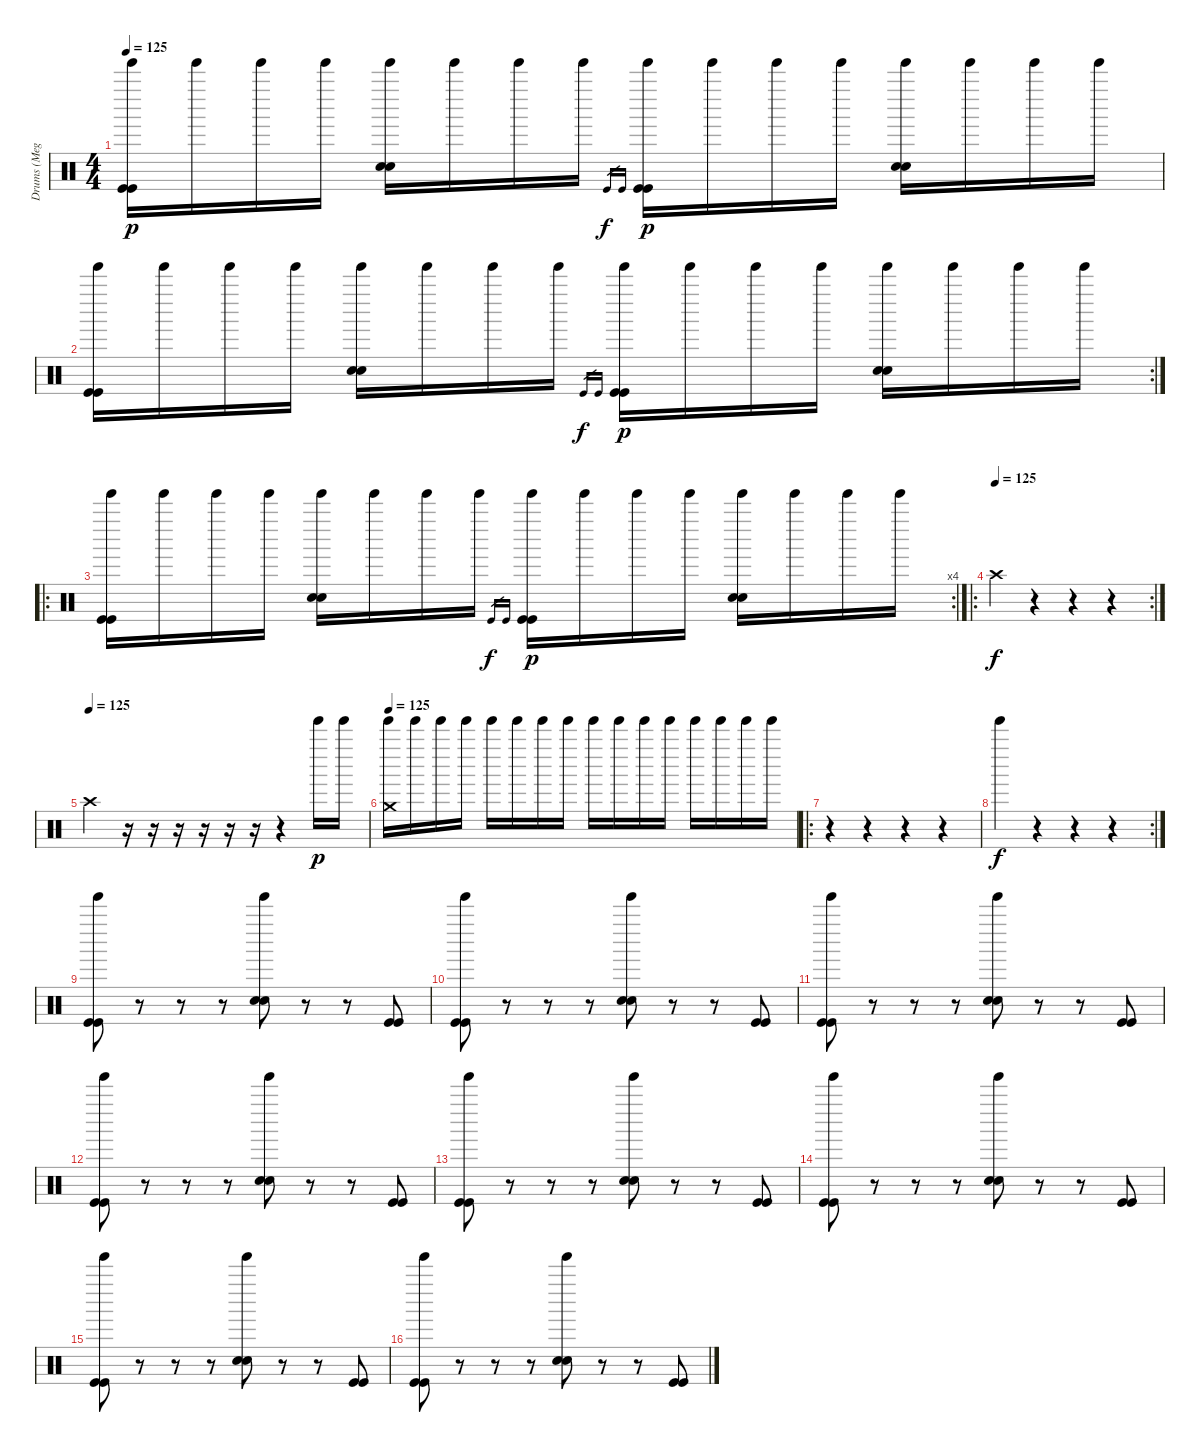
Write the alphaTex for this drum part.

\track ("Drums (Meg)" "Drums (Meg") {instrument percussion}
\staff {score}
\articulation defaults
\ts (4 4)
\tempo 125
\clef neutral
\ks c
("Tinkle Bell (hit)" "Kick (hit)" "Kick (hit)").16{dy p} "Tinkle Bell (hit)".16 "Tinkle Bell (hit)".16 "Tinkle Bell (hit)".16 ("Tinkle Bell (hit)" "Snare (hit) 2" "Snare (hit) 2").16 "Tinkle Bell (hit)".16 "Tinkle Bell (hit)".16 "Tinkle Bell (hit)".16 "Kick (hit)".16{gr dy f} "Kick (hit)".16{gr} ("Tinkle Bell (hit)" "Kick (hit)" "Kick (hit)").16{dy p} "Tinkle Bell (hit)".16 "Tinkle Bell (hit)".16 "Tinkle Bell (hit)".16 ("Tinkle Bell (hit)" "Snare (hit) 2" "Snare (hit) 2").16 "Tinkle Bell (hit)".16 "Tinkle Bell (hit)".16 "Tinkle Bell (hit)".16 |
\rc 2
("Tinkle Bell (hit)" "Kick (hit)" "Kick (hit)").16 "Tinkle Bell (hit)".16 "Tinkle Bell (hit)".16 "Tinkle Bell (hit)".16 ("Tinkle Bell (hit)" "Snare (hit) 2" "Snare (hit) 2").16 "Tinkle Bell (hit)".16 "Tinkle Bell (hit)".16 "Tinkle Bell (hit)".16 "Kick (hit)".16{gr dy f} "Kick (hit)".16{gr} ("Tinkle Bell (hit)" "Kick (hit)" "Kick (hit)").16{dy p} "Tinkle Bell (hit)".16 "Tinkle Bell (hit)".16 "Tinkle Bell (hit)".16 ("Tinkle Bell (hit)" "Snare (hit) 2" "Snare (hit) 2").16 "Tinkle Bell (hit)".16 "Tinkle Bell (hit)".16 "Tinkle Bell (hit)".16 |
\ro
\rc 4
("Tinkle Bell (hit)" "Kick (hit)" "Kick (hit)").16 "Tinkle Bell (hit)".16 "Tinkle Bell (hit)".16 "Tinkle Bell (hit)".16 ("Tinkle Bell (hit)" "Snare (hit) 2" "Snare (hit) 2").16 "Tinkle Bell (hit)".16 "Tinkle Bell (hit)".16 "Tinkle Bell (hit)".16 "Kick (hit)".16{gr dy f} "Kick (hit)".16{gr} ("Tinkle Bell (hit)" "Kick (hit)" "Kick (hit)").16{dy p} "Tinkle Bell (hit)".16 "Tinkle Bell (hit)".16 "Tinkle Bell (hit)".16 ("Tinkle Bell (hit)" "Snare (hit) 2" "Snare (hit) 2").16 "Tinkle Bell (hit)".16 "Tinkle Bell (hit)".16 "Tinkle Bell (hit)".16 |
\ro
\rc 2
\tempo (125)
"Crash high (hit)".4{dy f} r.4 r.4 r.4 |
\tempo (125)
"Crash high (hit)".4 r.16 r.16 r.16 r.16 r.16 r.16 r.4 "Tinkle Bell (hit)".16{dy p} "Tinkle Bell (hit)".16 |
\tempo 125
("Tinkle Bell (hit)" "Crash medium (hit)").16 "Tinkle Bell (hit)".16 "Tinkle Bell (hit)".16 "Tinkle Bell (hit)".16 "Tinkle Bell (hit)".16 "Tinkle Bell (hit)".16 "Tinkle Bell (hit)".16 "Tinkle Bell (hit)".16 "Tinkle Bell (hit)".16 "Tinkle Bell (hit)".16 "Tinkle Bell (hit)".16 "Tinkle Bell (hit)".16 "Tinkle Bell (hit)".16 "Tinkle Bell (hit)".16 "Tinkle Bell (hit)".16 "Tinkle Bell (hit)".16 |
\ro
r.4 r.4 r.4 r.4 |
\rc 2 "Tinkle Bell (hit)".4{dy f}
r.4 r.4 r.4 |
("Tinkle Bell (hit)" "Kick (hit)" "Kick (hit)").8 r.8 r.8 r.8 ("Tinkle Bell (hit)" "Snare (hit) 2" "Snare (hit) 2").8 r.8 r.8 ("Kick (hit)" "Kick (hit)").8 |
("Tinkle Bell (hit)" "Kick (hit)" "Kick (hit)").8 r.8 r.8 r.8 ("Tinkle Bell (hit)" "Snare (hit) 2" "Snare (hit) 2").8 r.8 r.8 ("Kick (hit)" "Kick (hit)").8 |
("Tinkle Bell (hit)" "Kick (hit)" "Kick (hit)").8 r.8 r.8 r.8 ("Tinkle Bell (hit)" "Snare (hit) 2" "Snare (hit) 2").8 r.8 r.8 ("Kick (hit)" "Kick (hit)").8 |
("Tinkle Bell (hit)" "Kick (hit)" "Kick (hit)").8 r.8 r.8 r.8 ("Tinkle Bell (hit)" "Snare (hit) 2" "Snare (hit) 2").8 r.8 r.8 ("Kick (hit)" "Kick (hit)").8 |
("Tinkle Bell (hit)" "Kick (hit)" "Kick (hit)").8 r.8 r.8 r.8 ("Tinkle Bell (hit)" "Snare (hit) 2" "Snare (hit) 2").8 r.8 r.8 ("Kick (hit)" "Kick (hit)").8 |
("Tinkle Bell (hit)" "Kick (hit)" "Kick (hit)").8 r.8 r.8 r.8 ("Tinkle Bell (hit)" "Snare (hit) 2" "Snare (hit) 2").8 r.8 r.8 ("Kick (hit)" "Kick (hit)").8 |
("Tinkle Bell (hit)" "Kick (hit)" "Kick (hit)").8 r.8 r.8 r.8 ("Tinkle Bell (hit)" "Snare (hit) 2" "Snare (hit) 2").8 r.8 r.8 ("Kick (hit)" "Kick (hit)").8 |
("Tinkle Bell (hit)" "Kick (hit)" "Kick (hit)").8 r.8 r.8 r.8 ("Tinkle Bell (hit)" "Snare (hit) 2" "Snare (hit) 2").8 r.8 r.8 ("Kick (hit)" "Kick (hit)").8
